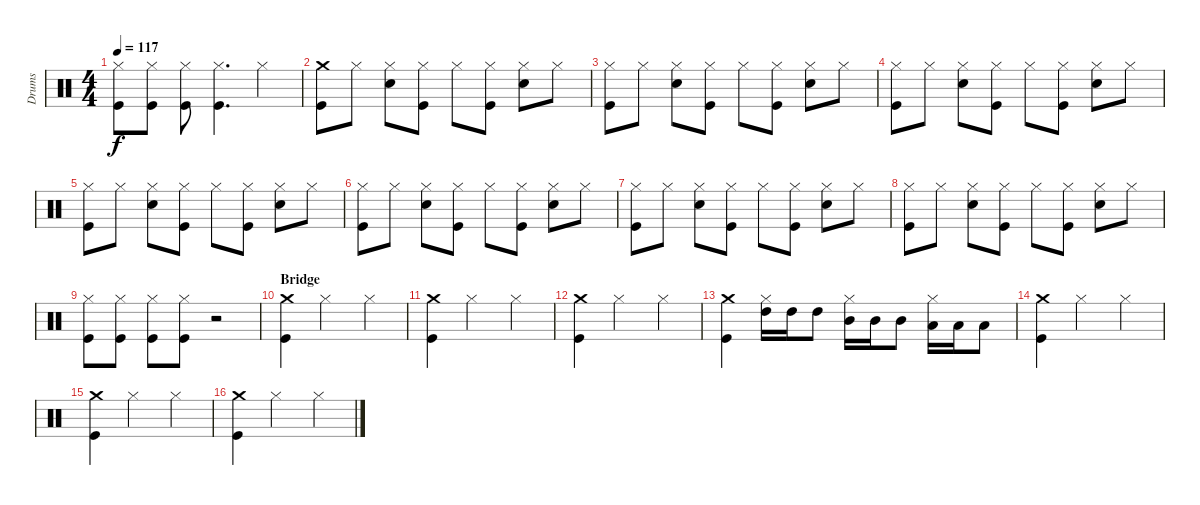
\track ("Drums" "Drums") {instrument percussion}
\staff {score}
\articulation defaults
\ts (4 4)
\tempo 117
\clef neutral
\ks c
("Hi-Hat (closed)" "Kick (hit)").8{dy f} ("Hi-Hat (closed)" "Kick (hit)").8 ("Hi-Hat (closed)" "Kick (hit)").8 ("Hi-Hat (closed)" "Kick (hit)").4{d} "Hi-Hat (closed)".4 |
("Crash medium (hit)" "Kick (hit)").8 "Hi-Hat (closed)".8 ("Hi-Hat (closed)" "Snare (hit) 2").8 ("Hi-Hat (closed)" "Kick (hit)").8 "Hi-Hat (closed)".8 ("Hi-Hat (closed)" "Kick (hit)").8 ("Hi-Hat (closed)" "Snare (hit) 2").8 "Hi-Hat (closed)".8 |
("Hi-Hat (closed)" "Kick (hit)").8 "Hi-Hat (closed)".8 ("Hi-Hat (closed)" "Snare (hit) 2").8 ("Hi-Hat (closed)" "Kick (hit)").8 "Hi-Hat (closed)".8 ("Hi-Hat (closed)" "Kick (hit)").8 ("Hi-Hat (closed)" "Snare (hit) 2").8 "Hi-Hat (closed)".8 |
("Hi-Hat (closed)" "Kick (hit)").8 "Hi-Hat (closed)".8 ("Hi-Hat (closed)" "Snare (hit) 2").8 ("Hi-Hat (closed)" "Kick (hit)").8 "Hi-Hat (closed)".8 ("Hi-Hat (closed)" "Kick (hit)").8 ("Hi-Hat (closed)" "Snare (hit) 2").8 "Hi-Hat (closed)".8 |
("Hi-Hat (closed)" "Kick (hit)").8 "Hi-Hat (closed)".8 ("Hi-Hat (closed)" "Snare (hit) 2").8 ("Hi-Hat (closed)" "Kick (hit)").8 "Hi-Hat (closed)".8 ("Hi-Hat (closed)" "Kick (hit)").8 ("Hi-Hat (closed)" "Snare (hit) 2").8 "Hi-Hat (closed)".8 |
("Hi-Hat (closed)" "Kick (hit)").8 "Hi-Hat (closed)".8 ("Hi-Hat (closed)" "Snare (hit) 2").8 ("Hi-Hat (closed)" "Kick (hit)").8 "Hi-Hat (closed)".8 ("Hi-Hat (closed)" "Kick (hit)").8 ("Hi-Hat (closed)" "Snare (hit) 2").8 "Hi-Hat (closed)".8 |
("Hi-Hat (closed)" "Kick (hit)").8 "Hi-Hat (closed)".8 ("Hi-Hat (closed)" "Snare (hit) 2").8 ("Hi-Hat (closed)" "Kick (hit)").8 "Hi-Hat (closed)".8 ("Hi-Hat (closed)" "Kick (hit)").8 ("Hi-Hat (closed)" "Snare (hit) 2").8 "Hi-Hat (closed)".8 |
("Hi-Hat (closed)" "Kick (hit)").8 "Hi-Hat (closed)".8 ("Hi-Hat (closed)" "Snare (hit) 2").8 ("Hi-Hat (closed)" "Kick (hit)").8 "Hi-Hat (closed)".8 ("Hi-Hat (closed)" "Kick (hit)").8 ("Hi-Hat (closed)" "Snare (hit) 2").8 "Hi-Hat (closed)".8 |
("Hi-Hat (closed)" "Kick (hit)").8 ("Hi-Hat (closed)" "Kick (hit)").8 ("Hi-Hat (closed)" "Kick (hit)").8 ("Hi-Hat (closed)" "Kick (hit)").8 r.2 |
\section ("" "Bridge")
("Crash medium (hit)" "Kick (hit)").4 "Hi-Hat (closed)".2 "Hi-Hat (closed)".4 |
("Crash medium (hit)" "Kick (hit)").4 "Hi-Hat (closed)".2 "Hi-Hat (closed)".4 |
("Crash medium (hit)" "Kick (hit)").4 "Hi-Hat (closed)".2 "Hi-Hat (closed)".4 |
("Crash medium (hit)" "Kick (hit)").4 ("Hi-Hat (closed)" "High Tom (hit)").16 "High Tom (hit)".16 "High Tom (hit)".8 ("Hi-Hat (closed)" "Mid Tom (hit)").16 "Mid Tom (hit)".16 "Mid Tom (hit)".8 ("Hi-Hat (closed)" "Low Tom (hit)").16 "Low Tom (hit)".16 "Low Tom (hit)".8 |
("Crash medium (hit)" "Kick (hit)").4 "Hi-Hat (closed)".2 "Hi-Hat (closed)".4 |
("Crash medium (hit)" "Kick (hit)").4 "Hi-Hat (closed)".2 "Hi-Hat (closed)".4 |
("Crash medium (hit)" "Kick (hit)").4 "Hi-Hat (closed)".2 "Hi-Hat (closed)".4
